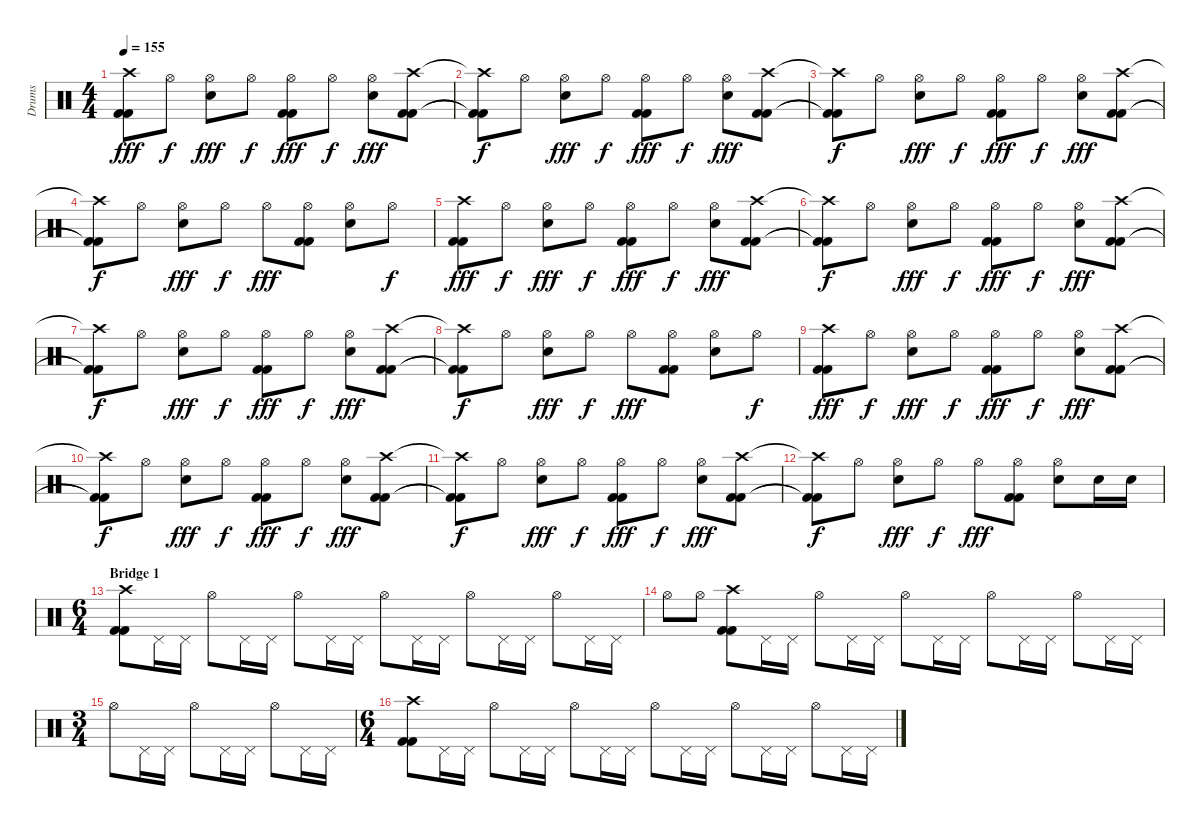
\track ("Drums" "Drums") {instrument percussion}
\staff {score}
\articulation defaults
\ts (4 4)
\tempo 155
\clef neutral
\ks c
("Crash high (hit)" "Kick (hit) 2" "Kick (hit) 2").8{dy fff} "Hi-Hat (open)".8{dy f} ("Hi-Hat (open)" "Snare (hit) 2").8{dy fff} "Hi-Hat (open)".8{dy f} ("Hi-Hat (open)" "Kick (hit) 2" "Kick (hit) 2").8{dy fff} "Hi-Hat (open)".8{dy f} ("Hi-Hat (open)" "Snare (hit) 2").8{dy fff} ("Crash high (hit)" "Kick (hit) 2" "Kick (hit) 2").8 |
("Crash high (hit)"{t} "Kick (hit) 2"{t} "Kick (hit) 2"{t}).8{dy f} "Hi-Hat (open)".8 ("Hi-Hat (open)" "Snare (hit) 2").8{dy fff} "Hi-Hat (open)".8{dy f} ("Hi-Hat (open)" "Kick (hit) 2" "Kick (hit) 2").8{dy fff} "Hi-Hat (open)".8{dy f} ("Hi-Hat (open)" "Snare (hit) 2").8{dy fff} ("Crash high (hit)" "Kick (hit) 2" "Kick (hit) 2").8 |
("Crash high (hit)"{t} "Kick (hit) 2"{t} "Kick (hit) 2"{t}).8{dy f} "Hi-Hat (open)".8 ("Hi-Hat (open)" "Snare (hit) 2").8{dy fff} "Hi-Hat (open)".8{dy f} ("Hi-Hat (open)" "Kick (hit) 2" "Kick (hit) 2").8{dy fff} "Hi-Hat (open)".8{dy f} ("Hi-Hat (open)" "Snare (hit) 2").8{dy fff} ("Crash high (hit)" "Kick (hit) 2" "Kick (hit) 2").8 |
("Crash high (hit)"{t} "Kick (hit) 2"{t} "Kick (hit) 2"{t}).8{dy f} "Hi-Hat (open)".8 ("Hi-Hat (open)" "Snare (hit) 2").8{dy fff} "Hi-Hat (open)".8{dy f} "Hi-Hat (open)".8{dy fff} ("Hi-Hat (open)" "Kick (hit) 2" "Kick (hit) 2").8 ("Hi-Hat (open)" "Snare (hit) 2").8 "Hi-Hat (open)".8{dy f} |
("Crash high (hit)" "Kick (hit) 2" "Kick (hit) 2").8{dy fff} "Hi-Hat (open)".8{dy f} ("Hi-Hat (open)" "Snare (hit) 2").8{dy fff} "Hi-Hat (open)".8{dy f} ("Hi-Hat (open)" "Kick (hit) 2" "Kick (hit) 2").8{dy fff} "Hi-Hat (open)".8{dy f} ("Hi-Hat (open)" "Snare (hit) 2").8{dy fff} ("Crash high (hit)" "Kick (hit) 2" "Kick (hit) 2").8 |
("Crash high (hit)"{t} "Kick (hit) 2"{t} "Kick (hit) 2"{t}).8{dy f} "Hi-Hat (open)".8 ("Hi-Hat (open)" "Snare (hit) 2").8{dy fff} "Hi-Hat (open)".8{dy f} ("Hi-Hat (open)" "Kick (hit) 2" "Kick (hit) 2").8{dy fff} "Hi-Hat (open)".8{dy f} ("Hi-Hat (open)" "Snare (hit) 2").8{dy fff} ("Crash high (hit)" "Kick (hit) 2" "Kick (hit) 2").8 |
("Crash high (hit)"{t} "Kick (hit) 2"{t} "Kick (hit) 2"{t}).8{dy f} "Hi-Hat (open)".8 ("Hi-Hat (open)" "Snare (hit) 2").8{dy fff} "Hi-Hat (open)".8{dy f} ("Hi-Hat (open)" "Kick (hit) 2" "Kick (hit) 2").8{dy fff} "Hi-Hat (open)".8{dy f} ("Hi-Hat (open)" "Snare (hit) 2").8{dy fff} ("Crash high (hit)" "Kick (hit) 2" "Kick (hit) 2").8 |
("Crash high (hit)"{t} "Kick (hit) 2"{t} "Kick (hit) 2"{t}).8{dy f} "Hi-Hat (open)".8 ("Hi-Hat (open)" "Snare (hit) 2").8{dy fff} "Hi-Hat (open)".8{dy f} "Hi-Hat (open)".8{dy fff} ("Hi-Hat (open)" "Kick (hit) 2" "Kick (hit) 2").8 ("Hi-Hat (open)" "Snare (hit) 2").8 "Hi-Hat (open)".8{dy f} |
("Crash high (hit)" "Kick (hit) 2" "Kick (hit) 2").8{dy fff} "Hi-Hat (open)".8{dy f} ("Hi-Hat (open)" "Snare (hit) 2").8{dy fff} "Hi-Hat (open)".8{dy f} ("Hi-Hat (open)" "Kick (hit) 2" "Kick (hit) 2").8{dy fff} "Hi-Hat (open)".8{dy f} ("Hi-Hat (open)" "Snare (hit) 2").8{dy fff} ("Crash high (hit)" "Kick (hit) 2" "Kick (hit) 2").8 |
("Crash high (hit)"{t} "Kick (hit) 2"{t} "Kick (hit) 2"{t}).8{dy f} "Hi-Hat (open)".8 ("Hi-Hat (open)" "Snare (hit) 2").8{dy fff} "Hi-Hat (open)".8{dy f} ("Hi-Hat (open)" "Kick (hit) 2" "Kick (hit) 2").8{dy fff} "Hi-Hat (open)".8{dy f} ("Hi-Hat (open)" "Snare (hit) 2").8{dy fff} ("Crash high (hit)" "Kick (hit) 2" "Kick (hit) 2").8 |
("Crash high (hit)"{t} "Kick (hit) 2"{t} "Kick (hit) 2"{t}).8{dy f} "Hi-Hat (open)".8 ("Hi-Hat (open)" "Snare (hit) 2").8{dy fff} "Hi-Hat (open)".8{dy f} ("Hi-Hat (open)" "Kick (hit) 2" "Kick (hit) 2").8{dy fff} "Hi-Hat (open)".8{dy f} ("Hi-Hat (open)" "Snare (hit) 2").8{dy fff} ("Crash high (hit)" "Kick (hit) 2" "Kick (hit) 2").8 |
("Crash high (hit)"{t} "Kick (hit) 2"{t} "Kick (hit) 2"{t}).8{dy f} "Hi-Hat (open)".8 ("Hi-Hat (open)" "Snare (hit) 2").8{dy fff} "Hi-Hat (open)".8{dy f} "Hi-Hat (open)".8{dy fff} ("Hi-Hat (open)" "Kick (hit) 2" "Kick (hit) 2").8 ("Hi-Hat (open)" "Snare (hit) 2").8 "Snare (hit) 2".16 "Snare (hit) 2".16 |
\ts (6 4)
\section ("" "Bridge 1")
("Crash high (hit)" "Kick (hit) 2" "Kick (hit) 2").8 "Pedal Hi-Hat (hit)".16 "Pedal Hi-Hat (hit)".16 "Hi-Hat (open)".8 "Pedal Hi-Hat (hit)".16 "Pedal Hi-Hat (hit)".16 "Hi-Hat (open)".8 "Pedal Hi-Hat (hit)".16 "Pedal Hi-Hat (hit)".16 "Hi-Hat (open)".8 "Pedal Hi-Hat (hit)".16 "Pedal Hi-Hat (hit)".16 "Hi-Hat (open)".8 "Pedal Hi-Hat (hit)".16 "Pedal Hi-Hat (hit)".16 "Hi-Hat (open)".8 "Pedal Hi-Hat (hit)".16 "Pedal Hi-Hat (hit)".16 |
"Hi-Hat (open)".8 "Hi-Hat (open)".8 ("Crash high (hit)" "Kick (hit) 2" "Kick (hit) 2").8 "Pedal Hi-Hat (hit)".16 "Pedal Hi-Hat (hit)".16 "Hi-Hat (open)".8 "Pedal Hi-Hat (hit)".16 "Pedal Hi-Hat (hit)".16 "Hi-Hat (open)".8 "Pedal Hi-Hat (hit)".16 "Pedal Hi-Hat (hit)".16 "Hi-Hat (open)".8 "Pedal Hi-Hat (hit)".16 "Pedal Hi-Hat (hit)".16 "Hi-Hat (open)".8 "Pedal Hi-Hat (hit)".16 "Pedal Hi-Hat (hit)".16 |
\ts (3 4)
"Hi-Hat (open)".8 "Pedal Hi-Hat (hit)".16 "Pedal Hi-Hat (hit)".16 "Hi-Hat (open)".8 "Pedal Hi-Hat (hit)".16 "Pedal Hi-Hat (hit)".16 "Hi-Hat (open)".8 "Pedal Hi-Hat (hit)".16 "Pedal Hi-Hat (hit)".16 |
\ts (6 4)
("Crash high (hit)" "Kick (hit) 2" "Kick (hit) 2").8 "Pedal Hi-Hat (hit)".16 "Pedal Hi-Hat (hit)".16 "Hi-Hat (open)".8 "Pedal Hi-Hat (hit)".16 "Pedal Hi-Hat (hit)".16 "Hi-Hat (open)".8 "Pedal Hi-Hat (hit)".16 "Pedal Hi-Hat (hit)".16 "Hi-Hat (open)".8 "Pedal Hi-Hat (hit)".16 "Pedal Hi-Hat (hit)".16 "Hi-Hat (open)".8 "Pedal Hi-Hat (hit)".16 "Pedal Hi-Hat (hit)".16 "Hi-Hat (open)".8 "Pedal Hi-Hat (hit)".16 "Pedal Hi-Hat (hit)".16
